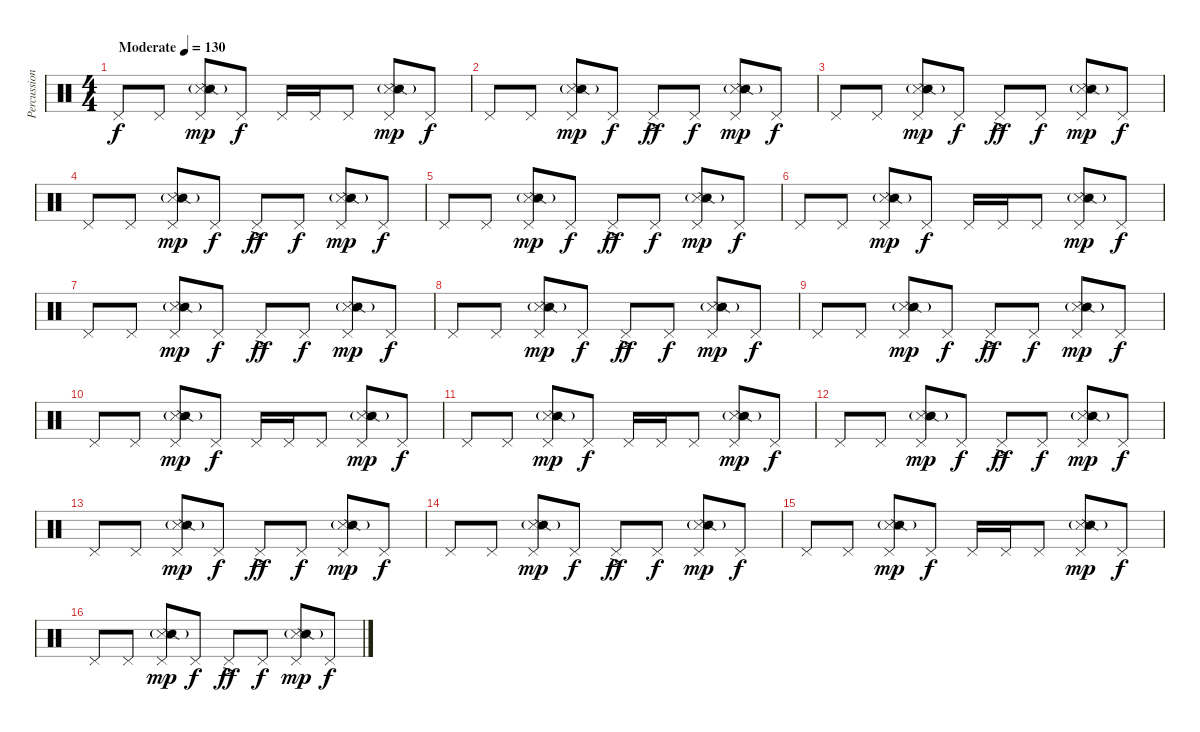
\track ("Percussion" "Percussion") {instrument percussion}
\staff {score}
\articulation defaults
\ts (4 4)
\tempo (130 "Moderate")
\clef neutral
\ks c "Pedal Hi-Hat (hit)".8{dy f} "Pedal Hi-Hat (hit)".8
("Pedal Hi-Hat (hit)" "Snare (side stick) 3" "Snare (side stick) 2"{g}).8{dy mp} "Pedal Hi-Hat (hit)".8{dy f} "Pedal Hi-Hat (hit)".16 "Pedal Hi-Hat (hit)".16 "Pedal Hi-Hat (hit)".8 ("Pedal Hi-Hat (hit)" "Snare (side stick) 3" "Snare (side stick) 2"{g}).8{dy mp} "Pedal Hi-Hat (hit)".8{dy f} |
"Pedal Hi-Hat (hit)".8 "Pedal Hi-Hat (hit)".8 ("Pedal Hi-Hat (hit)" "Snare (side stick) 3" "Snare (side stick) 2"{g}).8{dy mp} "Pedal Hi-Hat (hit)".8{dy f} "Pedal Hi-Hat (hit)"{ac}.8{dy ff} "Pedal Hi-Hat (hit)".8{dy f} ("Pedal Hi-Hat (hit)" "Snare (side stick) 3" "Snare (side stick) 2"{g}).8{dy mp} "Pedal Hi-Hat (hit)".8{dy f} |
"Pedal Hi-Hat (hit)".8 "Pedal Hi-Hat (hit)".8 ("Pedal Hi-Hat (hit)" "Snare (side stick) 3" "Snare (side stick) 2"{g}).8{dy mp} "Pedal Hi-Hat (hit)".8{dy f} "Pedal Hi-Hat (hit)"{ac}.8{dy ff} "Pedal Hi-Hat (hit)".8{dy f} ("Pedal Hi-Hat (hit)" "Snare (side stick) 3" "Snare (side stick) 2"{g}).8{dy mp} "Pedal Hi-Hat (hit)".8{dy f} |
"Pedal Hi-Hat (hit)".8 "Pedal Hi-Hat (hit)".8 ("Pedal Hi-Hat (hit)" "Snare (side stick) 3" "Snare (side stick) 2"{g}).8{dy mp} "Pedal Hi-Hat (hit)".8{dy f} "Pedal Hi-Hat (hit)"{ac}.8{dy ff} "Pedal Hi-Hat (hit)".8{dy f} ("Pedal Hi-Hat (hit)" "Snare (side stick) 3" "Snare (side stick) 2"{g}).8{dy mp} "Pedal Hi-Hat (hit)".8{dy f} |
"Pedal Hi-Hat (hit)".8 "Pedal Hi-Hat (hit)".8 ("Pedal Hi-Hat (hit)" "Snare (side stick) 3" "Snare (side stick) 2"{g}).8{dy mp} "Pedal Hi-Hat (hit)".8{dy f} "Pedal Hi-Hat (hit)"{ac}.8{dy ff} "Pedal Hi-Hat (hit)".8{dy f} ("Pedal Hi-Hat (hit)" "Snare (side stick) 3" "Snare (side stick) 2"{g}).8{dy mp} "Pedal Hi-Hat (hit)".8{dy f} |
"Pedal Hi-Hat (hit)".8 "Pedal Hi-Hat (hit)".8 ("Pedal Hi-Hat (hit)" "Snare (side stick) 3" "Snare (side stick) 2"{g}).8{dy mp} "Pedal Hi-Hat (hit)".8{dy f} "Pedal Hi-Hat (hit)".16 "Pedal Hi-Hat (hit)".16 "Pedal Hi-Hat (hit)".8 ("Pedal Hi-Hat (hit)" "Snare (side stick) 3" "Snare (side stick) 2"{g}).8{dy mp} "Pedal Hi-Hat (hit)".8{dy f} |
"Pedal Hi-Hat (hit)".8 "Pedal Hi-Hat (hit)".8 ("Pedal Hi-Hat (hit)" "Snare (side stick) 3" "Snare (side stick) 2"{g}).8{dy mp} "Pedal Hi-Hat (hit)".8{dy f} "Pedal Hi-Hat (hit)"{ac}.8{dy ff} "Pedal Hi-Hat (hit)".8{dy f} ("Pedal Hi-Hat (hit)" "Snare (side stick) 3" "Snare (side stick) 2"{g}).8{dy mp} "Pedal Hi-Hat (hit)".8{dy f} |
"Pedal Hi-Hat (hit)".8 "Pedal Hi-Hat (hit)".8 ("Pedal Hi-Hat (hit)" "Snare (side stick) 3" "Snare (side stick) 2"{g}).8{dy mp} "Pedal Hi-Hat (hit)".8{dy f} "Pedal Hi-Hat (hit)"{ac}.8{dy ff} "Pedal Hi-Hat (hit)".8{dy f} ("Pedal Hi-Hat (hit)" "Snare (side stick) 3" "Snare (side stick) 2"{g}).8{dy mp} "Pedal Hi-Hat (hit)".8{dy f} |
"Pedal Hi-Hat (hit)".8 "Pedal Hi-Hat (hit)".8 ("Pedal Hi-Hat (hit)" "Snare (side stick) 3" "Snare (side stick) 2"{g}).8{dy mp} "Pedal Hi-Hat (hit)".8{dy f} "Pedal Hi-Hat (hit)"{ac}.8{dy ff} "Pedal Hi-Hat (hit)".8{dy f} ("Pedal Hi-Hat (hit)" "Snare (side stick) 3" "Snare (side stick) 2"{g}).8{dy mp} "Pedal Hi-Hat (hit)".8{dy f} |
"Pedal Hi-Hat (hit)".8 "Pedal Hi-Hat (hit)".8 ("Pedal Hi-Hat (hit)" "Snare (side stick) 3" "Snare (side stick) 2"{g}).8{dy mp} "Pedal Hi-Hat (hit)".8{dy f} "Pedal Hi-Hat (hit)".16 "Pedal Hi-Hat (hit)".16 "Pedal Hi-Hat (hit)".8 ("Pedal Hi-Hat (hit)" "Snare (side stick) 3" "Snare (side stick) 2"{g}).8{dy mp} "Pedal Hi-Hat (hit)".8{dy f} |
"Pedal Hi-Hat (hit)".8 "Pedal Hi-Hat (hit)".8 ("Pedal Hi-Hat (hit)" "Snare (side stick) 3" "Snare (side stick) 2"{g}).8{dy mp} "Pedal Hi-Hat (hit)".8{dy f} "Pedal Hi-Hat (hit)".16 "Pedal Hi-Hat (hit)".16 "Pedal Hi-Hat (hit)".8 ("Pedal Hi-Hat (hit)" "Snare (side stick) 3" "Snare (side stick) 2"{g}).8{dy mp} "Pedal Hi-Hat (hit)".8{dy f} |
"Pedal Hi-Hat (hit)".8 "Pedal Hi-Hat (hit)".8 ("Pedal Hi-Hat (hit)" "Snare (side stick) 3" "Snare (side stick) 2"{g}).8{dy mp} "Pedal Hi-Hat (hit)".8{dy f} "Pedal Hi-Hat (hit)"{ac}.8{dy ff} "Pedal Hi-Hat (hit)".8{dy f} ("Pedal Hi-Hat (hit)" "Snare (side stick) 3" "Snare (side stick) 2"{g}).8{dy mp} "Pedal Hi-Hat (hit)".8{dy f} |
"Pedal Hi-Hat (hit)".8 "Pedal Hi-Hat (hit)".8 ("Pedal Hi-Hat (hit)" "Snare (side stick) 3" "Snare (side stick) 2"{g}).8{dy mp} "Pedal Hi-Hat (hit)".8{dy f} "Pedal Hi-Hat (hit)"{ac}.8{dy ff} "Pedal Hi-Hat (hit)".8{dy f} ("Pedal Hi-Hat (hit)" "Snare (side stick) 3" "Snare (side stick) 2"{g}).8{dy mp} "Pedal Hi-Hat (hit)".8{dy f} |
"Pedal Hi-Hat (hit)".8 "Pedal Hi-Hat (hit)".8 ("Pedal Hi-Hat (hit)" "Snare (side stick) 3" "Snare (side stick) 2"{g}).8{dy mp} "Pedal Hi-Hat (hit)".8{dy f} "Pedal Hi-Hat (hit)"{ac}.8{dy ff} "Pedal Hi-Hat (hit)".8{dy f} ("Pedal Hi-Hat (hit)" "Snare (side stick) 3" "Snare (side stick) 2"{g}).8{dy mp} "Pedal Hi-Hat (hit)".8{dy f} |
"Pedal Hi-Hat (hit)".8 "Pedal Hi-Hat (hit)".8 ("Pedal Hi-Hat (hit)" "Snare (side stick) 3" "Snare (side stick) 2"{g}).8{dy mp} "Pedal Hi-Hat (hit)".8{dy f} "Pedal Hi-Hat (hit)".16 "Pedal Hi-Hat (hit)".16 "Pedal Hi-Hat (hit)".8 ("Pedal Hi-Hat (hit)" "Snare (side stick) 3" "Snare (side stick) 2"{g}).8{dy mp} "Pedal Hi-Hat (hit)".8{dy f} |
"Pedal Hi-Hat (hit)".8 "Pedal Hi-Hat (hit)".8 ("Pedal Hi-Hat (hit)" "Snare (side stick) 3" "Snare (side stick) 2"{g}).8{dy mp} "Pedal Hi-Hat (hit)".8{dy f} "Pedal Hi-Hat (hit)"{ac}.8{dy ff} "Pedal Hi-Hat (hit)".8{dy f} ("Pedal Hi-Hat (hit)" "Snare (side stick) 3" "Snare (side stick) 2"{g}).8{dy mp} "Pedal Hi-Hat (hit)".8{dy f}
